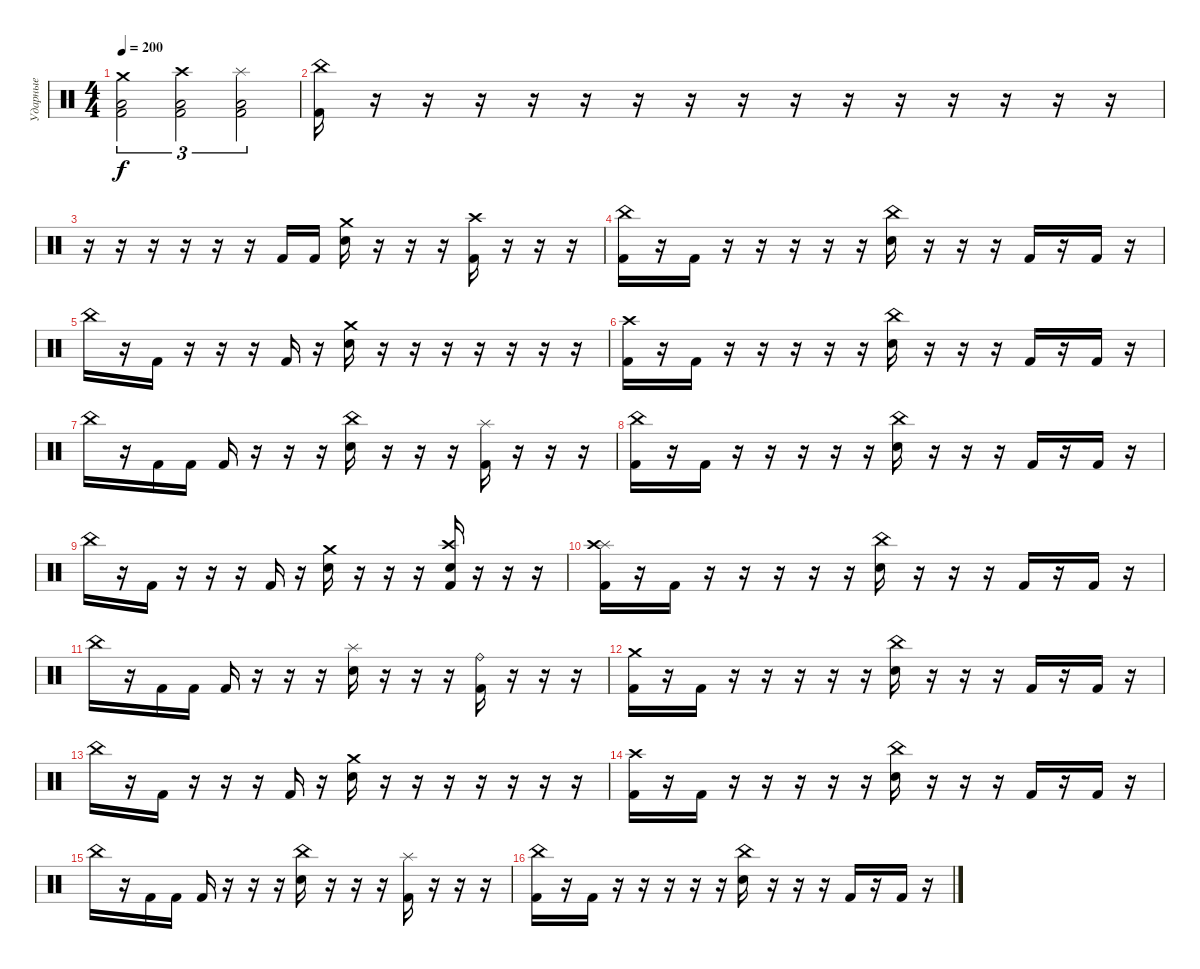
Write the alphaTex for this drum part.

\track ("Ударные" "Ударные") {instrument percussion}
\staff {score}
\articulation defaults
\ts (4 4)
\tempo 200
\clef neutral
\ks c
("Kick (hit) 2" "Low Floor Tom (hit)" "Crash medium (hit)").2{tu (3 2) dy f} ("Kick (hit) 2" "Low Floor Tom (hit)" "Crash high (hit)").2{tu (3 2)} ("Kick (hit) 2" "Low Floor Tom (hit)" "Splash (hit)").2{tu (3 2)} |
("Kick (hit) 2" "China (hit)").16 r.16 r.16 r.16 r.16 r.16 r.16 r.16 r.16 r.16 r.16 r.16 r.16 r.16 r.16 r.16 |
r.16 r.16 r.16 r.16 r.16 r.16 "Kick (hit) 2".16 "Kick (hit) 2".16 ("Electric Snare (hit)" "Crash medium (hit)").16 r.16 r.16 r.16 ("Kick (hit) 2" "Crash high (hit)").16 r.16 r.16 r.16 |
("Kick (hit) 2" "China (hit)").16 r.16 "Kick (hit) 2".16 r.16 r.16 r.16 r.16 r.16 ("Electric Snare (hit)" "China (hit)").16 r.16 r.16 r.16 "Kick (hit) 2".16 r.16 "Kick (hit) 2".16 r.16 |
"China (hit)".16 r.16 "Kick (hit) 2".16 r.16 r.16 r.16 "Kick (hit) 2".16 r.16 ("Electric Snare (hit)" "Crash medium (hit)").16 r.16 r.16 r.16 r.16 r.16 r.16 r.16 |
("Kick (hit) 2" "Crash high (hit)").16 r.16 "Kick (hit) 2".16 r.16 r.16 r.16 r.16 r.16 ("Electric Snare (hit)" "China (hit)").16 r.16 r.16 r.16 "Kick (hit) 2".16 r.16 "Kick (hit) 2".16 r.16 |
"China (hit)".16 r.16 "Kick (hit) 2".16 "Kick (hit) 2".16 "Kick (hit) 2".16 r.16 r.16 r.16 ("Electric Snare (hit)" "China (hit)").16 r.16 r.16 r.16 ("Kick (hit) 2" "Splash (hit)").16 r.16 r.16 r.16 |
("Kick (hit) 2" "China (hit)").16 r.16 "Kick (hit) 2".16 r.16 r.16 r.16 r.16 r.16 ("Electric Snare (hit)" "China (hit)").16 r.16 r.16 r.16 "Kick (hit) 2".16 r.16 "Kick (hit) 2".16 r.16 |
"China (hit)".16 r.16 "Kick (hit) 2".16 r.16 r.16 r.16 "Kick (hit) 2".16 r.16 ("Electric Snare (hit)" "Crash medium (hit)").16 r.16 r.16 r.16 ("Kick (hit) 2" "Electric Snare (hit)" "Crash high (hit)").16 r.16 r.16 r.16 |
("Kick (hit) 2" "Splash (hit)" "Crash high (hit)").16 r.16 "Kick (hit) 2".16 r.16 r.16 r.16 r.16 r.16 ("Electric Snare (hit)" "China (hit)").16 r.16 r.16 r.16 "Kick (hit) 2".16 r.16 "Kick (hit) 2".16 r.16 |
"China (hit)".16 r.16 "Kick (hit) 2".16 "Kick (hit) 2".16 "Kick (hit) 2".16 r.16 r.16 r.16 ("Electric Snare (hit)" "Splash (hit)").16 r.16 r.16 r.16 ("Kick (hit) 2" "Ride (bell)").16 r.16 r.16 r.16 |
("Kick (hit) 2" "Crash medium (hit)").16 r.16 "Kick (hit) 2".16 r.16 r.16 r.16 r.16 r.16 ("Electric Snare (hit)" "China (hit)").16 r.16 r.16 r.16 "Kick (hit) 2".16 r.16 "Kick (hit) 2".16 r.16 |
"China (hit)".16 r.16 "Kick (hit) 2".16 r.16 r.16 r.16 "Kick (hit) 2".16 r.16 ("Electric Snare (hit)" "Crash medium (hit)").16 r.16 r.16 r.16 r.16 r.16 r.16 r.16 |
("Kick (hit) 2" "Crash high (hit)").16 r.16 "Kick (hit) 2".16 r.16 r.16 r.16 r.16 r.16 ("Electric Snare (hit)" "China (hit)").16 r.16 r.16 r.16 "Kick (hit) 2".16 r.16 "Kick (hit) 2".16 r.16 |
"China (hit)".16 r.16 "Kick (hit) 2".16 "Kick (hit) 2".16 "Kick (hit) 2".16 r.16 r.16 r.16 ("Electric Snare (hit)" "China (hit)").16 r.16 r.16 r.16 ("Kick (hit) 2" "Splash (hit)").16 r.16 r.16 r.16 |
("Kick (hit) 2" "China (hit)").16 r.16 "Kick (hit) 2".16 r.16 r.16 r.16 r.16 r.16 ("Electric Snare (hit)" "China (hit)").16 r.16 r.16 r.16 "Kick (hit) 2".16 r.16 "Kick (hit) 2".16 r.16
